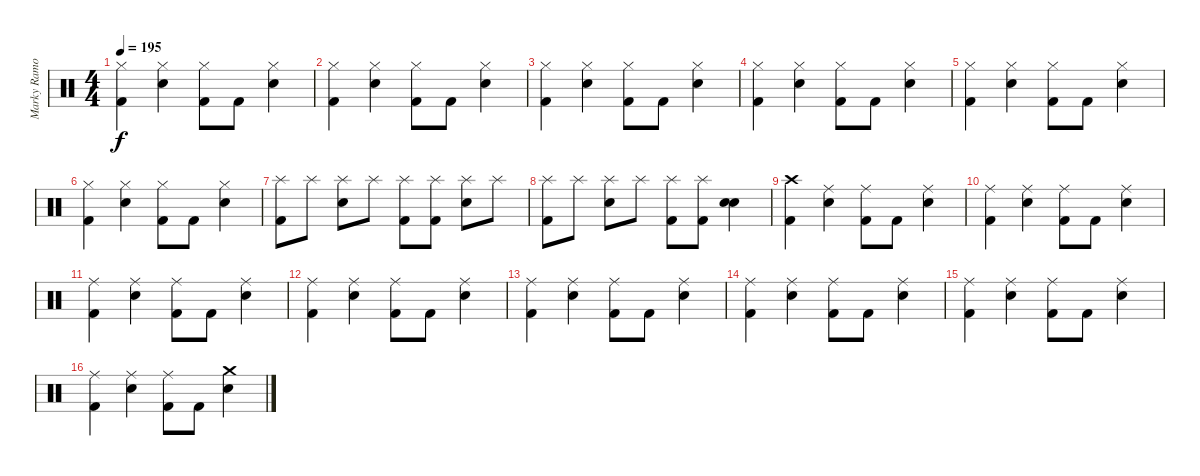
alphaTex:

\track ("Marky Ramone" "Marky Ramo") {instrument percussion}
\staff {score}
\articulation defaults
\ts (4 4)
\tempo 195
\clef neutral
\ks c
("Hi-Hat (closed)" "Kick (hit) 2").4{dy f} ("Hi-Hat (closed)" "Snare (hit) 2").4 ("Hi-Hat (closed)" "Kick (hit) 2").8 "Kick (hit) 2".8 ("Hi-Hat (closed)" "Snare (hit) 2").4 |
("Hi-Hat (closed)" "Kick (hit) 2").4 ("Hi-Hat (closed)" "Snare (hit) 2").4 ("Hi-Hat (closed)" "Kick (hit) 2").8 "Kick (hit) 2".8 ("Hi-Hat (closed)" "Snare (hit) 2").4 |
("Hi-Hat (closed)" "Kick (hit) 2").4 ("Hi-Hat (closed)" "Snare (hit) 2").4 ("Hi-Hat (closed)" "Kick (hit) 2").8 "Kick (hit) 2".8 ("Hi-Hat (closed)" "Snare (hit) 2").4 |
("Hi-Hat (closed)" "Kick (hit) 2").4 ("Hi-Hat (closed)" "Snare (hit) 2").4 ("Hi-Hat (closed)" "Kick (hit) 2").8 "Kick (hit) 2".8 ("Hi-Hat (closed)" "Snare (hit) 2").4 |
("Hi-Hat (closed)" "Kick (hit) 2").4 ("Hi-Hat (closed)" "Snare (hit) 2").4 ("Hi-Hat (closed)" "Kick (hit) 2").8 "Kick (hit) 2".8 ("Hi-Hat (closed)" "Snare (hit) 2").4 |
("Hi-Hat (closed)" "Kick (hit) 2").4 ("Hi-Hat (closed)" "Snare (hit) 2").4 ("Hi-Hat (closed)" "Kick (hit) 2").8 "Kick (hit) 2".8 ("Hi-Hat (closed)" "Snare (hit) 2").4 |
("Splash (hit)" "Kick (hit) 2").8 "Splash (hit)".8 ("Splash (hit)" "Snare (hit) 2").8 "Splash (hit)".8 ("Splash (hit)" "Kick (hit) 2").8 ("Splash (hit)" "Kick (hit) 2").8 ("Splash (hit)" "Snare (hit) 2").8 "Splash (hit)".8 |
("Splash (hit)" "Kick (hit) 2").8 "Splash (hit)".8 ("Splash (hit)" "Snare (hit) 2").8 "Splash (hit)".8 ("Splash (hit)" "Kick (hit) 2").8 ("Splash (hit)" "Kick (hit) 2").8 ("Snare (hit) 2" "Snare (hit) 2").4 |
("Crash high (hit)" "Kick (hit) 2").4 ("Ride (middle)" "Snare (hit) 2").4 ("Ride (middle)" "Kick (hit) 2").8 "Kick (hit) 2".8 ("Ride (middle)" "Snare (hit) 2").4 |
("Ride (middle)" "Kick (hit) 2").4 ("Ride (middle)" "Snare (hit) 2").4 ("Ride (middle)" "Kick (hit) 2").8 "Kick (hit) 2".8 ("Ride (middle)" "Snare (hit) 2").4 |
("Ride (middle)" "Kick (hit) 2").4 ("Ride (middle)" "Snare (hit) 2").4 ("Ride (middle)" "Kick (hit) 2").8 "Kick (hit) 2".8 ("Ride (middle)" "Snare (hit) 2").4 |
("Ride (middle)" "Kick (hit) 2").4 ("Ride (middle)" "Snare (hit) 2").4 ("Ride (middle)" "Kick (hit) 2").8 "Kick (hit) 2".8 ("Ride (middle)" "Snare (hit) 2").4 |
("Ride (middle)" "Kick (hit) 2").4 ("Ride (middle)" "Snare (hit) 2").4 ("Ride (middle)" "Kick (hit) 2").8 "Kick (hit) 2".8 ("Ride (middle)" "Snare (hit) 2").4 |
("Ride (middle)" "Kick (hit) 2").4 ("Ride (middle)" "Snare (hit) 2").4 ("Ride (middle)" "Kick (hit) 2").8 "Kick (hit) 2".8 ("Ride (middle)" "Snare (hit) 2").4 |
("Ride (middle)" "Kick (hit) 2").4 ("Ride (middle)" "Snare (hit) 2").4 ("Ride (middle)" "Kick (hit) 2").8 "Kick (hit) 2".8 ("Ride (middle)" "Snare (hit) 2").4 |
("Ride (middle)" "Kick (hit) 2").4 ("Ride (middle)" "Snare (hit) 2").4 ("Ride (middle)" "Kick (hit) 2").8 "Kick (hit) 2".8 ("Crash medium (hit)" "Snare (hit) 2").4
